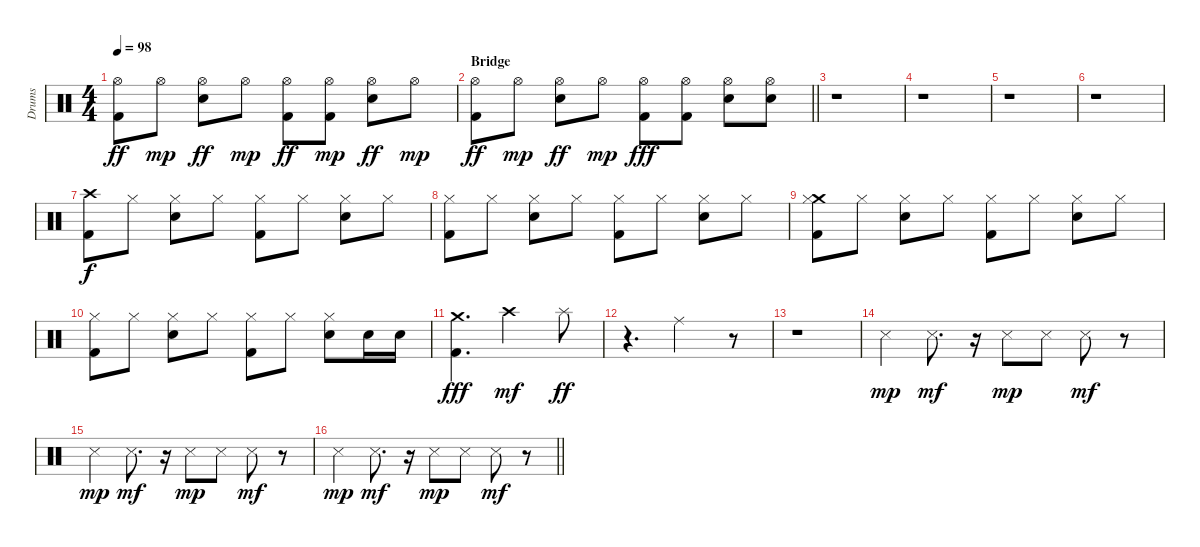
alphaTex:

\track ("Drums" "Drums") {instrument percussion}
\staff {score}
\articulation defaults
\ts (4 4)
\tempo 98
\clef neutral
\ks c
("Hi-Hat (open)" "Kick (hit) 2").8{dy ff} "Hi-Hat (open)".8{dy mp} ("Hi-Hat (open)" "Snare (hit) 2").8{dy ff} "Hi-Hat (open)".8{dy mp} ("Hi-Hat (open)" "Kick (hit) 2").8{dy ff} ("Hi-Hat (open)" "Kick (hit) 2").8{dy mp} ("Hi-Hat (open)" "Snare (hit) 2").8{dy ff} "Hi-Hat (open)".8{dy mp} |
\section ("" "Bridge")
\barLineRight lightlight
("Hi-Hat (open)" "Kick (hit) 2").8{dy ff} "Hi-Hat (open)".8{dy mp} ("Hi-Hat (open)" "Snare (hit) 2").8{dy ff} "Hi-Hat (open)".8{dy mp} ("Hi-Hat (open)" "Kick (hit) 2").8{dy fff} ("Hi-Hat (open)" "Kick (hit) 2").8 ("Hi-Hat (open)" "Snare (hit) 2").8 ("Hi-Hat (open)" "Snare (hit) 2").8 |
r.1 |
r.1 |
r.1 |
r.1 |
("Crash high (hit)" "Kick (hit) 2").8{dy f} "Hi-Hat (closed)".8 ("Hi-Hat (closed)" "Snare (hit) 2").8 "Hi-Hat (closed)".8 ("Hi-Hat (closed)" "Kick (hit) 2").8 "Hi-Hat (closed)".8 ("Hi-Hat (closed)" "Snare (hit) 2").8 "Hi-Hat (closed)".8 |
("Hi-Hat (closed)" "Kick (hit) 2").8 "Hi-Hat (closed)".8 ("Hi-Hat (closed)" "Snare (hit) 2").8 "Hi-Hat (closed)".8 ("Hi-Hat (closed)" "Kick (hit) 2").8 "Hi-Hat (closed)".8 ("Hi-Hat (closed)" "Snare (hit) 2").8 "Hi-Hat (closed)".8 |
("Crash medium (hit)" "Hi-Hat (closed)" "Kick (hit) 2").8 "Hi-Hat (closed)".8 ("Hi-Hat (closed)" "Snare (hit) 2").8 "Hi-Hat (closed)".8 ("Hi-Hat (closed)" "Kick (hit) 2").8 "Hi-Hat (closed)".8 ("Hi-Hat (closed)" "Snare (hit) 2").8 "Hi-Hat (closed)".8 |
("Hi-Hat (closed)" "Kick (hit) 2").8 "Hi-Hat (closed)".8 ("Hi-Hat (closed)" "Snare (hit) 2").8 "Hi-Hat (closed)".8 ("Hi-Hat (closed)" "Kick (hit) 2").8 "Hi-Hat (closed)".8 ("Hi-Hat (closed)" "Snare (hit) 2").8 "Snare (hit) 2".16 "Snare (hit) 2".16 |
("Crash medium (hit)" "Kick (hit) 2").4{d dy fff} "Crash high (hit)".2{dy mf} "Splash (hit)".8{dy ff} |
r.4{d} "Ride (middle)".2 r.8 |
r.1 |
"Snare (side stick) 3".4{dy mp} "Snare (side stick) 3".8{d dy mf} r.16 "Snare (side stick) 3".8{dy mp} "Snare (side stick) 3".8 "Snare (side stick) 3".8{dy mf} r.8 |
"Snare (side stick) 3".4{dy mp} "Snare (side stick) 3".8{d dy mf} r.16 "Snare (side stick) 3".8{dy mp} "Snare (side stick) 3".8 "Snare (side stick) 3".8{dy mf} r.8 |
\barLineRight lightlight "Snare (side stick) 3".4{dy mp} "Snare (side stick) 3".8{d dy mf}
r.16 "Snare (side stick) 3".8{dy mp} "Snare (side stick) 3".8 "Snare (side stick) 3".8{dy mf} r.8
